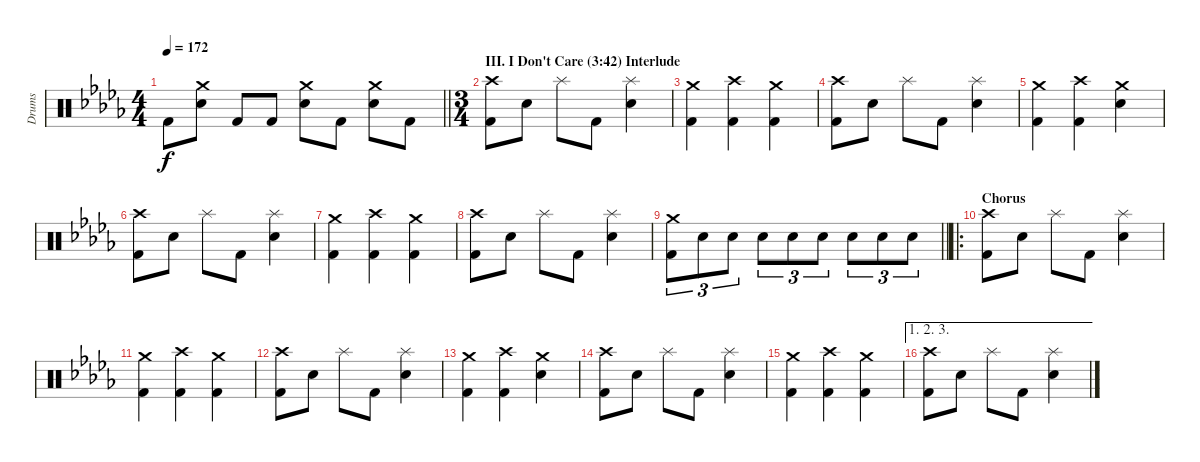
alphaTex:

\track ("Drums" "Drums") {instrument percussion}
\staff {score}
\articulation defaults
\ts (4 4)
\tempo 172
\clef neutral
\barLineRight lightlight
\ks db "Kick (hit) 2".8{dy f}
("Crash medium (hit)" "Snare (hit) 2").8 "Kick (hit) 2".8 "Kick (hit) 2".8 ("Crash medium (hit)" "Snare (hit) 2").8 "Kick (hit) 2".8 ("Crash medium (hit)" "Snare (hit) 2").8 "Kick (hit) 2".8 |
\ts (3 4)
\section ("" "III. I Don't Care (3:42) Interlude")
("Crash high (hit)" "Kick (hit) 2").8 "Snare (hit) 2".8 "Splash (hit)".8 "Kick (hit) 2".8 ("Splash (hit)" "Snare (hit) 2").4 |
("Crash medium (hit)" "Kick (hit) 2").4 ("Crash high (hit)" "Kick (hit) 2").4 ("Crash medium (hit)" "Kick (hit) 2").4 |
("Crash high (hit)" "Kick (hit) 2").8 "Snare (hit) 2".8 "Splash (hit)".8 "Kick (hit) 2".8 ("Splash (hit)" "Snare (hit) 2").4 |
("Crash medium (hit)" "Kick (hit) 2").4 ("Crash high (hit)" "Kick (hit) 2").4 ("Crash medium (hit)" "Snare (hit) 2").4 |
("Crash high (hit)" "Kick (hit) 2").8 "Snare (hit) 2".8 "Splash (hit)".8 "Kick (hit) 2".8 ("Splash (hit)" "Snare (hit) 2").4 |
("Crash medium (hit)" "Kick (hit) 2").4 ("Crash high (hit)" "Kick (hit) 2").4 ("Crash medium (hit)" "Kick (hit) 2").4 |
("Crash high (hit)" "Kick (hit) 2").8 "Snare (hit) 2".8 "Splash (hit)".8 "Kick (hit) 2".8 ("Splash (hit)" "Snare (hit) 2").4 |
\barLineRight lightlight
("Crash medium (hit)" "Kick (hit) 2").8{tu (3 2)} "Snare (hit) 2".8{tu (3 2)} "Snare (hit) 2".8{tu (3 2)} "Snare (hit) 2".8{tu (3 2)} "Snare (hit) 2".8{tu (3 2)} "Snare (hit) 2".8{tu (3 2)} "Snare (hit) 2".8{tu (3 2)} "Snare (hit) 2".8{tu (3 2)} "Snare (hit) 2".8{tu (3 2)} |
\ro
\section ("" "Chorus")
("Crash high (hit)" "Kick (hit) 2").8 "Snare (hit) 2".8 "Splash (hit)".8 "Kick (hit) 2".8 ("Splash (hit)" "Snare (hit) 2").4 |
("Crash medium (hit)" "Kick (hit) 2").4 ("Crash high (hit)" "Kick (hit) 2").4 ("Crash medium (hit)" "Kick (hit) 2").4 |
("Crash high (hit)" "Kick (hit) 2").8 "Snare (hit) 2".8 "Splash (hit)".8 "Kick (hit) 2".8 ("Splash (hit)" "Snare (hit) 2").4 |
("Crash medium (hit)" "Kick (hit) 2").4 ("Crash high (hit)" "Kick (hit) 2").4 ("Crash medium (hit)" "Snare (hit) 2").4 |
("Crash high (hit)" "Kick (hit) 2").8 "Snare (hit) 2".8 "Splash (hit)".8 "Kick (hit) 2".8 ("Splash (hit)" "Snare (hit) 2").4 |
("Crash medium (hit)" "Kick (hit) 2").4 ("Crash high (hit)" "Kick (hit) 2").4 ("Crash medium (hit)" "Kick (hit) 2").4 |
\ae (1 2 3)
("Crash high (hit)" "Kick (hit) 2").8 "Snare (hit) 2".8 "Splash (hit)".8 "Kick (hit) 2".8 ("Splash (hit)" "Snare (hit) 2").4
